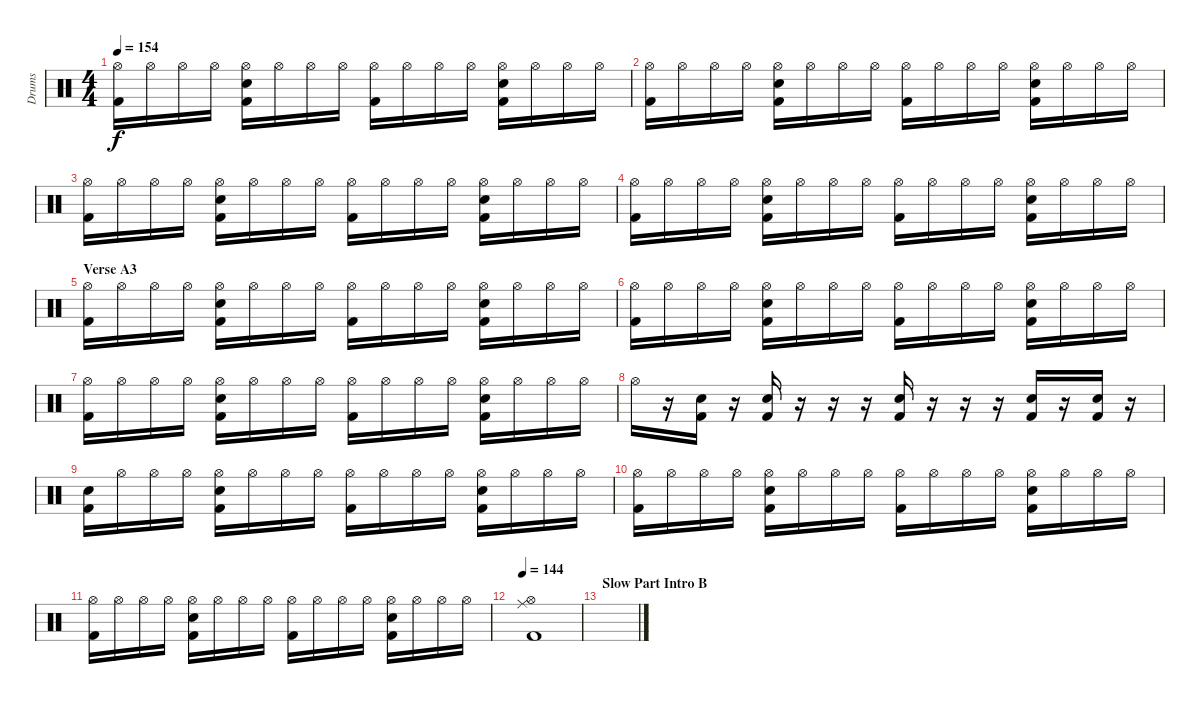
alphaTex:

\track ("Drums" "Drums") {instrument percussion}
\staff {score}
\articulation defaults
\ts (4 4)
\tempo 154
\clef neutral
\ks c
("Hi-Hat (open)" "Kick (hit) 2").16{dy f} "Hi-Hat (open)".16 "Hi-Hat (open)".16 "Hi-Hat (open)".16 ("Hi-Hat (open)" "Snare (hit) 2" "Kick (hit) 2").16 "Hi-Hat (open)".16 "Hi-Hat (open)".16 "Hi-Hat (open)".16 ("Hi-Hat (open)" "Kick (hit) 2").16 "Hi-Hat (open)".16 "Hi-Hat (open)".16 "Hi-Hat (open)".16 ("Hi-Hat (open)" "Snare (hit) 2" "Kick (hit) 2").16 "Hi-Hat (open)".16 "Hi-Hat (open)".16 "Hi-Hat (open)".16 |
("Hi-Hat (open)" "Kick (hit) 2").16 "Hi-Hat (open)".16 "Hi-Hat (open)".16 "Hi-Hat (open)".16 ("Hi-Hat (open)" "Snare (hit) 2" "Kick (hit) 2").16 "Hi-Hat (open)".16 "Hi-Hat (open)".16 "Hi-Hat (open)".16 ("Hi-Hat (open)" "Kick (hit) 2").16 "Hi-Hat (open)".16 "Hi-Hat (open)".16 "Hi-Hat (open)".16 ("Hi-Hat (open)" "Snare (hit) 2" "Kick (hit) 2").16 "Hi-Hat (open)".16 "Hi-Hat (open)".16 "Hi-Hat (open)".16 |
("Hi-Hat (open)" "Kick (hit) 2").16 "Hi-Hat (open)".16 "Hi-Hat (open)".16 "Hi-Hat (open)".16 ("Hi-Hat (open)" "Snare (hit) 2" "Kick (hit) 2").16 "Hi-Hat (open)".16 "Hi-Hat (open)".16 "Hi-Hat (open)".16 ("Hi-Hat (open)" "Kick (hit) 2").16 "Hi-Hat (open)".16 "Hi-Hat (open)".16 "Hi-Hat (open)".16 ("Hi-Hat (open)" "Snare (hit) 2" "Kick (hit) 2").16 "Hi-Hat (open)".16 "Hi-Hat (open)".16 "Hi-Hat (open)".16 |
("Hi-Hat (open)" "Kick (hit) 2").16 "Hi-Hat (open)".16 "Hi-Hat (open)".16 "Hi-Hat (open)".16 ("Hi-Hat (open)" "Snare (hit) 2" "Kick (hit) 2").16 "Hi-Hat (open)".16 "Hi-Hat (open)".16 "Hi-Hat (open)".16 ("Hi-Hat (open)" "Kick (hit) 2").16 "Hi-Hat (open)".16 "Hi-Hat (open)".16 "Hi-Hat (open)".16 ("Hi-Hat (open)" "Snare (hit) 2" "Kick (hit) 2").16 "Hi-Hat (open)".16 "Hi-Hat (open)".16 "Hi-Hat (open)".16 |
\section ("" "Verse A3")
("Hi-Hat (open)" "Kick (hit) 2").16 "Hi-Hat (open)".16 "Hi-Hat (open)".16 "Hi-Hat (open)".16 ("Hi-Hat (open)" "Snare (hit) 2" "Kick (hit) 2").16 "Hi-Hat (open)".16 "Hi-Hat (open)".16 "Hi-Hat (open)".16 ("Hi-Hat (open)" "Kick (hit) 2").16 "Hi-Hat (open)".16 "Hi-Hat (open)".16 "Hi-Hat (open)".16 ("Hi-Hat (open)" "Snare (hit) 2" "Kick (hit) 2").16 "Hi-Hat (open)".16 "Hi-Hat (open)".16 "Hi-Hat (open)".16 |
("Hi-Hat (open)" "Kick (hit) 2").16 "Hi-Hat (open)".16 "Hi-Hat (open)".16 "Hi-Hat (open)".16 ("Hi-Hat (open)" "Snare (hit) 2" "Kick (hit) 2").16 "Hi-Hat (open)".16 "Hi-Hat (open)".16 "Hi-Hat (open)".16 ("Hi-Hat (open)" "Kick (hit) 2").16 "Hi-Hat (open)".16 "Hi-Hat (open)".16 "Hi-Hat (open)".16 ("Hi-Hat (open)" "Snare (hit) 2" "Kick (hit) 2").16 "Hi-Hat (open)".16 "Hi-Hat (open)".16 "Hi-Hat (open)".16 |
("Hi-Hat (open)" "Kick (hit) 2").16 "Hi-Hat (open)".16 "Hi-Hat (open)".16 "Hi-Hat (open)".16 ("Hi-Hat (open)" "Snare (hit) 2" "Kick (hit) 2").16 "Hi-Hat (open)".16 "Hi-Hat (open)".16 "Hi-Hat (open)".16 ("Hi-Hat (open)" "Kick (hit) 2").16 "Hi-Hat (open)".16 "Hi-Hat (open)".16 "Hi-Hat (open)".16 ("Hi-Hat (open)" "Snare (hit) 2" "Kick (hit) 2").16 "Hi-Hat (open)".16 "Hi-Hat (open)".16 "Hi-Hat (open)".16 |
"Hi-Hat (open)".16 r.16 ("Snare (hit) 2" "Kick (hit) 2").16 r.16 ("Snare (hit) 2" "Kick (hit) 2").16 r.16 r.16 r.16 ("Snare (hit) 2" "Kick (hit) 2").16 r.16 r.16 r.16 ("Snare (hit) 2" "Kick (hit) 2").16 r.16 ("Snare (hit) 2" "Kick (hit) 2").16 r.16 |
("Snare (hit) 2" "Kick (hit) 2").16 "Hi-Hat (open)".16 "Hi-Hat (open)".16 "Hi-Hat (open)".16 ("Hi-Hat (open)" "Snare (hit) 2" "Kick (hit) 2").16 "Hi-Hat (open)".16 "Hi-Hat (open)".16 "Hi-Hat (open)".16 ("Hi-Hat (open)" "Kick (hit) 2").16 "Hi-Hat (open)".16 "Hi-Hat (open)".16 "Hi-Hat (open)".16 ("Hi-Hat (open)" "Snare (hit) 2" "Kick (hit) 2").16 "Hi-Hat (open)".16 "Hi-Hat (open)".16 "Hi-Hat (open)".16 |
("Hi-Hat (open)" "Kick (hit) 2").16 "Hi-Hat (open)".16 "Hi-Hat (open)".16 "Hi-Hat (open)".16 ("Hi-Hat (open)" "Snare (hit) 2" "Kick (hit) 2").16 "Hi-Hat (open)".16 "Hi-Hat (open)".16 "Hi-Hat (open)".16 ("Hi-Hat (open)" "Kick (hit) 2").16 "Hi-Hat (open)".16 "Hi-Hat (open)".16 "Hi-Hat (open)".16 ("Hi-Hat (open)" "Snare (hit) 2" "Kick (hit) 2").16 "Hi-Hat (open)".16 "Hi-Hat (open)".16 "Hi-Hat (open)".16 |
("Hi-Hat (open)" "Kick (hit) 2").16 "Hi-Hat (open)".16 "Hi-Hat (open)".16 "Hi-Hat (open)".16 ("Hi-Hat (open)" "Snare (hit) 2" "Kick (hit) 2").16 "Hi-Hat (open)".16 "Hi-Hat (open)".16 "Hi-Hat (open)".16 ("Hi-Hat (open)" "Kick (hit) 2").16 "Hi-Hat (open)".16 "Hi-Hat (open)".16 "Hi-Hat (open)".16 ("Hi-Hat (open)" "Snare (hit) 2" "Kick (hit) 2").16 "Hi-Hat (open)".16 "Hi-Hat (open)".16 "Hi-Hat (open)".16 |
\tempo 144
("Hi-Hat (open)" "Ride (middle)" "Kick (hit) 2").1 |
\section ("" "Slow Part Intro B")
